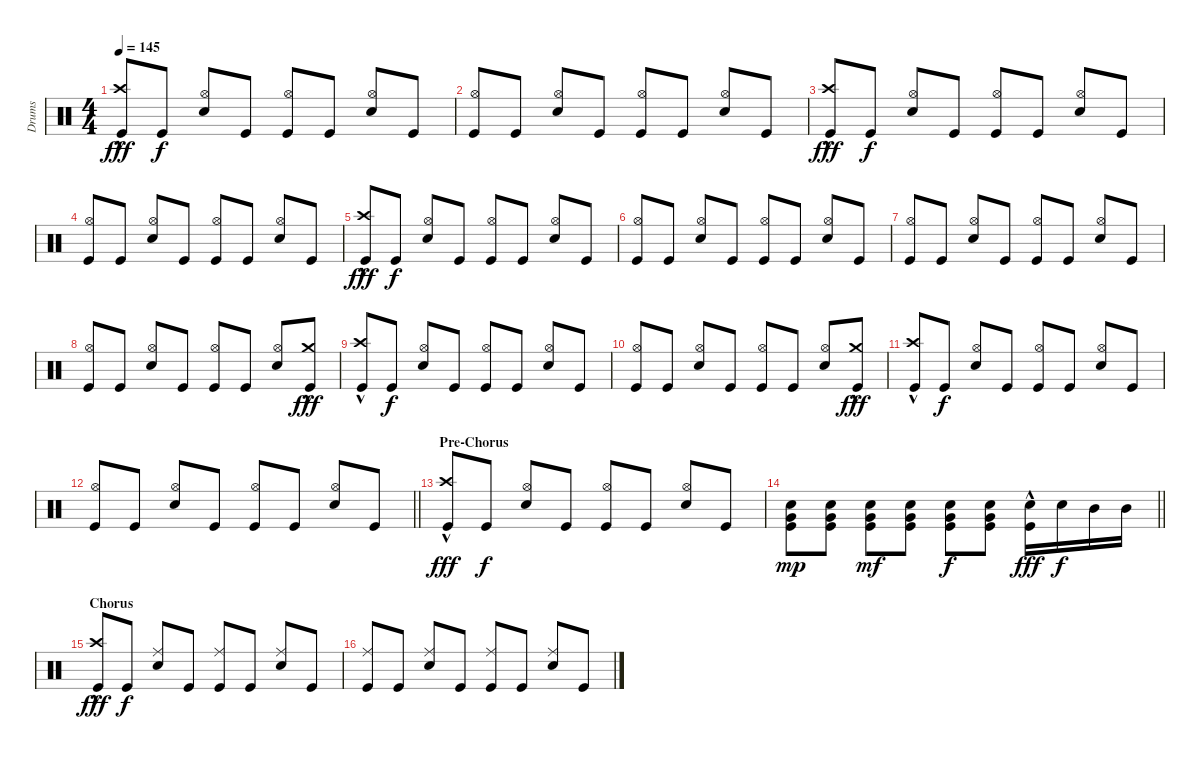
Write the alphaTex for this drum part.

\track ("Drums" "Drums") {instrument percussion}
\staff {score}
\articulation defaults
\ts (4 4)
\tempo 145
\clef neutral
\ks c
("Crash high (hit)"{hac} "Kick (hit)").8{dy fff beam Up} "Kick (hit)".8{dy f beam Up} ("Hi-Hat (open)" "Snare (hit) 2").8{beam Up} "Kick (hit)".8{beam Up} ("Hi-Hat (open)" "Kick (hit)").8{beam Up} "Kick (hit)".8{beam Up} ("Hi-Hat (open)" "Snare (hit) 2").8{beam Up} "Kick (hit)".8{beam Up} |
("Hi-Hat (open)" "Kick (hit)").8{beam Up} "Kick (hit)".8{beam Up} ("Hi-Hat (open)" "Snare (hit) 2").8{beam Up} "Kick (hit)".8{beam Up} ("Hi-Hat (open)" "Kick (hit)").8{beam Up} "Kick (hit)".8{beam Up} ("Hi-Hat (open)" "Snare (hit) 2").8{beam Up} "Kick (hit)".8{beam Up} |
("Crash high (hit)"{hac} "Kick (hit)").8{dy fff beam Up} "Kick (hit)".8{dy f beam Up} ("Hi-Hat (open)" "Snare (hit) 2").8{beam Up} "Kick (hit)".8{beam Up} ("Hi-Hat (open)" "Kick (hit)").8{beam Up} "Kick (hit)".8{beam Up} ("Hi-Hat (open)" "Snare (hit) 2").8{beam Up} "Kick (hit)".8{beam Up} |
("Hi-Hat (open)" "Kick (hit)").8{beam Up} "Kick (hit)".8{beam Up} ("Hi-Hat (open)" "Snare (hit) 2").8{beam Up} "Kick (hit)".8{beam Up} ("Hi-Hat (open)" "Kick (hit)").8{beam Up} "Kick (hit)".8{beam Up} ("Hi-Hat (open)" "Snare (hit) 2").8{beam Up} "Kick (hit)".8{beam Up} |
("Crash high (hit)"{hac} "Kick (hit)").8{dy fff beam Up} "Kick (hit)".8{dy f beam Up} ("Hi-Hat (open)" "Snare (hit) 2").8{beam Up} "Kick (hit)".8{beam Up} ("Hi-Hat (open)" "Kick (hit)").8{beam Up} "Kick (hit)".8{beam Up} ("Hi-Hat (open)" "Snare (hit) 2").8{beam Up} "Kick (hit)".8{beam Up} |
("Hi-Hat (open)" "Kick (hit)").8{beam Up} "Kick (hit)".8{beam Up} ("Hi-Hat (open)" "Snare (hit) 2").8{beam Up} "Kick (hit)".8{beam Up} ("Hi-Hat (open)" "Kick (hit)").8{beam Up} "Kick (hit)".8{beam Up} ("Hi-Hat (open)" "Snare (hit) 2").8{beam Up} "Kick (hit)".8{beam Up} |
("Hi-Hat (open)" "Kick (hit)").8{beam Up} "Kick (hit)".8{beam Up} ("Hi-Hat (open)" "Snare (hit) 2").8{beam Up} "Kick (hit)".8{beam Up} ("Hi-Hat (open)" "Kick (hit)").8{beam Up} "Kick (hit)".8{beam Up} ("Hi-Hat (open)" "Snare (hit) 2").8{beam Up} "Kick (hit)".8{beam Up} |
("Hi-Hat (open)" "Kick (hit)").8{beam Up} "Kick (hit)".8{beam Up} ("Hi-Hat (open)" "Snare (hit) 2").8{beam Up} "Kick (hit)".8{beam Up} ("Hi-Hat (open)" "Kick (hit)").8{beam Up} "Kick (hit)".8{beam Up} ("Hi-Hat (open)" "Snare (hit) 2").8{beam Up} ("Crash medium (hit)"{hac} "Kick (hit)").8{dy fff beam Up} |
("Crash high (hit)"{hac} "Kick (hit)").8{beam Up} "Kick (hit)".8{dy f beam Up} ("Hi-Hat (open)" "Snare (hit) 2").8{beam Up} "Kick (hit)".8{beam Up} ("Hi-Hat (open)" "Kick (hit)").8{beam Up} "Kick (hit)".8{beam Up} ("Hi-Hat (open)" "Snare (hit) 2").8{beam Up} "Kick (hit)".8{beam Up} |
("Hi-Hat (open)" "Kick (hit)").8{beam Up} "Kick (hit)".8{beam Up} ("Hi-Hat (open)" "Snare (hit) 2").8{beam Up} "Kick (hit)".8{beam Up} ("Hi-Hat (open)" "Kick (hit)").8{beam Up} "Kick (hit)".8{beam Up} ("Hi-Hat (open)" "Snare (hit) 2").8{beam Up} ("Crash medium (hit)"{hac} "Kick (hit)").8{dy fff beam Up} |
("Crash high (hit)"{hac} "Kick (hit)").8{beam Up} "Kick (hit)".8{dy f beam Up} ("Hi-Hat (open)" "Snare (hit) 2").8{beam Up} "Kick (hit)".8{beam Up} ("Hi-Hat (open)" "Kick (hit)").8{beam Up} "Kick (hit)".8{beam Up} ("Hi-Hat (open)" "Snare (hit) 2").8{beam Up} "Kick (hit)".8{beam Up} |
\barLineRight lightlight
("Hi-Hat (open)" "Kick (hit)").8{beam Up} "Kick (hit)".8{beam Up} ("Hi-Hat (open)" "Snare (hit) 2").8{beam Up} "Kick (hit)".8{beam Up} ("Hi-Hat (open)" "Kick (hit)").8{beam Up} "Kick (hit)".8{beam Up} ("Hi-Hat (open)" "Snare (hit) 2").8{beam Up} "Kick (hit)".8{beam Up} |
\section ("" "Pre-Chorus")
("Crash high (hit)"{hac} "Kick (hit)").8{dy fff beam Up} "Kick (hit)".8{dy f beam Up} ("Hi-Hat (open)" "Snare (hit) 2").8{beam Up} "Kick (hit)".8{beam Up} ("Hi-Hat (open)" "Kick (hit)").8{beam Up} "Kick (hit)".8{beam Up} ("Hi-Hat (open)" "Snare (hit) 2").8{beam Up} "Kick (hit)".8{beam Up} |
\barLineRight lightlight
("Snare (hit) 2" "Very Low Tom (hit)" "Kick (hit)").8{dy mp beam Down} ("Snare (hit) 2" "Very Low Tom (hit)" "Kick (hit)").8{beam Down} ("Snare (hit) 2" "Very Low Tom (hit)" "Kick (hit)").8{dy mf beam Down} ("Snare (hit) 2" "Very Low Tom (hit)" "Kick (hit)").8{beam Down} ("Snare (hit) 2" "Very Low Tom (hit)" "Kick (hit)").8{dy f beam Down} ("Snare (hit) 2" "Very Low Tom (hit)" "Kick (hit)").8{beam Down} ("Snare (hit) 2"{hac} "Kick (hit)").16{dy fff beam Down} "Snare (hit) 2".16{dy f beam Down} "Mid Tom (hit)".16{beam Down} "Mid Tom (hit)".16{beam Down} |
\section ("" "Chorus")
("Crash high (hit)"{hac} "Kick (hit)").8{dy fff beam Up} "Kick (hit)".8{dy f beam Up} ("Ride (middle)" "Snare (hit) 2").8{beam Up} "Kick (hit)".8{beam Up} ("Ride (middle)" "Kick (hit)").8{beam Up} "Kick (hit)".8{beam Up} ("Ride (middle)" "Snare (hit) 2").8{beam Up} "Kick (hit)".8{beam Up} |
("Ride (middle)" "Kick (hit)").8{beam Up} "Kick (hit)".8{beam Up} ("Ride (middle)" "Snare (hit) 2").8{beam Up} "Kick (hit)".8{beam Up} ("Ride (middle)" "Kick (hit)").8{beam Up} "Kick (hit)".8{beam Up} ("Ride (middle)" "Snare (hit) 2").8{beam Up} "Kick (hit)".8{beam Up}
